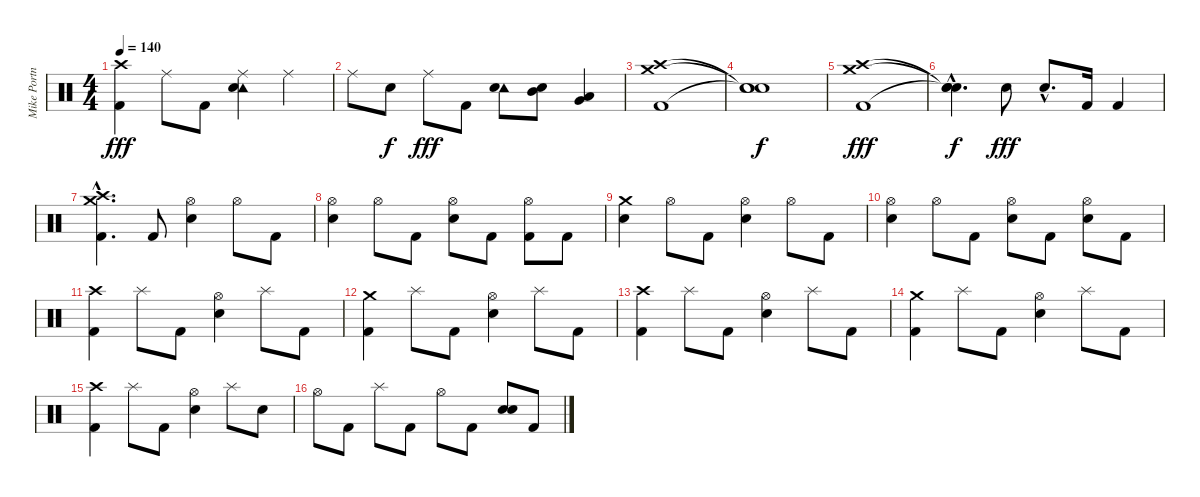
\track ("Mike Portnoy" "Mike Portn") {instrument percussion}
\staff {score}
\articulation defaults
\ts (4 4)
\tempo 140
\clef neutral
\ks c
("Crash high (hit)" "Kick (hit) 2").4{dy fff} "Ride (middle)".8 "Kick (hit) 2".8 ("Tambourine (hit)" "Ride (middle)" "Snare (hit) 2").4 "Ride (middle)".4 |
"Ride (middle)".8 "Snare (hit) 2".8{dy f} "Ride (middle)".8{dy fff} "Kick (hit) 2".8 ("Tambourine (hit)" "Snare (hit) 2").8 ("Mid Tom (hit)" "Snare (hit) 2").8 ("Very Low Tom (hit)" "Low Floor Tom (hit)").4 |
("Crash high (hit)" "Crash medium (hit)" "Kick (hit) 2").1 |
("Snare (hit)"{t} "Snare (hit)"{t} "Snare (hit)"{t}).1{dy f} |
("Crash high (hit)" "Crash medium (hit)" "Kick (hit) 2").1{dy fff} |
("Snare (hit)"{hac t} "Snare (hit)"{hac t} "Snare (hit)"{hac t}).4{d dy f} "Snare (hit) 2".8{dy fff} "Snare (hit) 2"{hac}.8{d} "Kick (hit) 2".16 "Kick (hit) 2".4 |
("Crash high (hit)"{hac} "Crash medium (hit)"{hac} "Kick (hit) 2"{hac}).4{d} "Kick (hit) 2".8 ("Hi-Hat (open)" "Snare (hit) 2").4 "Hi-Hat (open)".8 "Kick (hit) 2".8 |
("Hi-Hat (open)" "Snare (hit) 2").4 "Hi-Hat (open)".8 "Kick (hit) 2".8 ("Hi-Hat (open)" "Snare (hit) 2").8 "Kick (hit) 2".8 ("Hi-Hat (open)" "Kick (hit) 2").8 "Kick (hit) 2".8 |
("Crash medium (hit)" "Snare (hit) 2").4 "Hi-Hat (open)".8 "Kick (hit) 2".8 ("Hi-Hat (open)" "Snare (hit) 2").4 "Hi-Hat (open)".8 "Kick (hit) 2".8 |
("Hi-Hat (open)" "Snare (hit) 2").4 "Hi-Hat (open)".8 "Kick (hit) 2".8 ("Hi-Hat (open)" "Snare (hit) 2").8 "Kick (hit) 2".8 ("Hi-Hat (open)" "Snare (hit) 2").8 "Kick (hit) 2".8 |
("Crash high (hit)" "Kick (hit) 2").4 "Splash (hit)".8 "Kick (hit) 2".8 ("Hi-Hat (open)" "Snare (hit) 2").4 "Splash (hit)".8 "Kick (hit) 2".8 |
("Crash medium (hit)" "Kick (hit) 2").4 "Splash (hit)".8 "Kick (hit) 2".8 ("Hi-Hat (open)" "Snare (hit) 2").4 "Splash (hit)".8 "Kick (hit) 2".8 |
("Crash high (hit)" "Kick (hit) 2").4 "Splash (hit)".8 "Kick (hit) 2".8 ("Hi-Hat (open)" "Snare (hit) 2").4 "Splash (hit)".8 "Kick (hit) 2".8 |
("Crash medium (hit)" "Kick (hit) 2").4 "Splash (hit)".8 "Kick (hit) 2".8 ("Hi-Hat (open)" "Snare (hit) 2").4 "Splash (hit)".8 "Kick (hit) 2".8 |
("Crash high (hit)" "Kick (hit) 2").4 "Splash (hit)".8 "Kick (hit) 2".8 ("Hi-Hat (open)" "Snare (hit) 2").4 "Splash (hit)".8 "Snare (hit) 2".8 |
"Hi-Hat (open)".8 "Kick (hit) 2".8 "Splash (hit)".8 "Kick (hit) 2".8 "Hi-Hat (open)".8 "Kick (hit) 2".8 ("Snare (hit) 2" "Snare (hit) 2").8 "Kick (hit) 2".8
